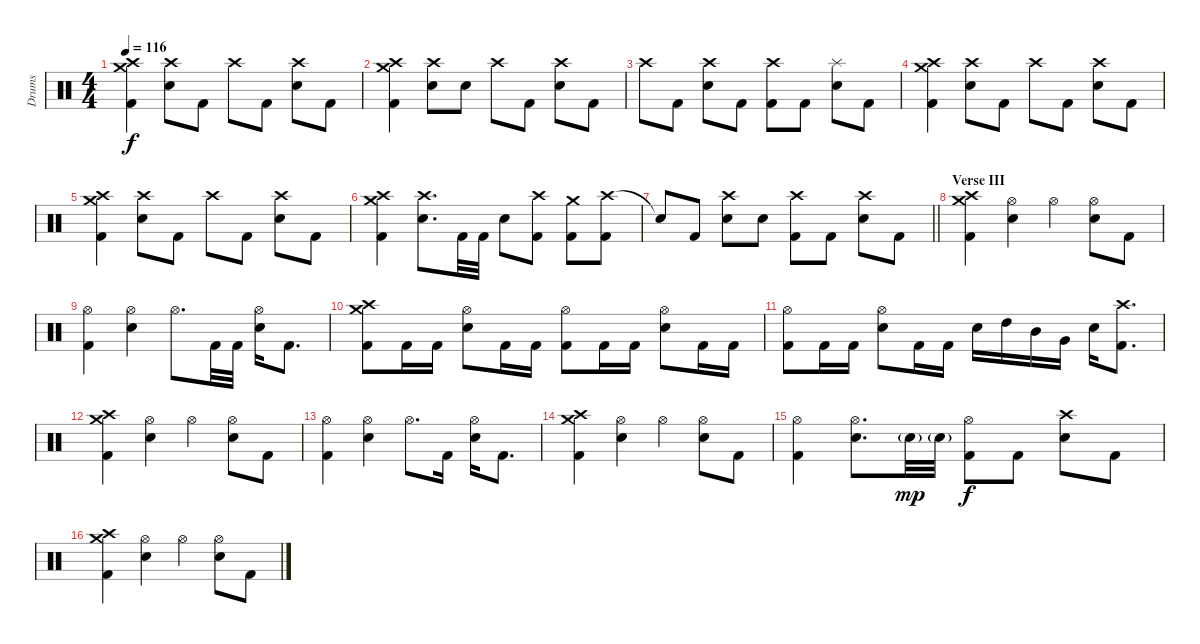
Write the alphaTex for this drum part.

\track ("Drums" "Drums") {instrument percussion}
\staff {score}
\articulation defaults
\ts (4 4)
\tempo 116
\clef neutral
\ks c
("Crash medium (hit)" "Crash high (hit)" "Kick (hit) 2").4{dy f} ("Crash high (hit)" "Electric Snare (hit)").8 "Kick (hit) 2".8 "Crash high (hit)".8 "Kick (hit) 2".8 ("Crash high (hit)" "Electric Snare (hit)").8 "Kick (hit) 2".8 |
("Crash medium (hit)" "Crash high (hit)" "Kick (hit) 2").4 ("Crash high (hit)" "Electric Snare (hit)").8 "Electric Snare (hit)".8 "Crash high (hit)".8 "Kick (hit) 2".8 ("Crash high (hit)" "Electric Snare (hit)").8 "Kick (hit) 2".8 |
"Crash high (hit)".8 "Kick (hit) 2".8 ("Crash high (hit)" "Electric Snare (hit)").8 "Kick (hit) 2".8 ("Crash high (hit)" "Kick (hit) 2").8 "Kick (hit) 2".8 ("Splash (hit)" "Electric Snare (hit)").8 "Kick (hit) 2".8 |
("Crash medium (hit)" "Crash high (hit)" "Kick (hit) 2").4 ("Crash high (hit)" "Electric Snare (hit)").8 "Kick (hit) 2".8 "Crash high (hit)".8 "Kick (hit) 2".8 ("Crash high (hit)" "Electric Snare (hit)").8 "Kick (hit) 2".8 |
("Crash medium (hit)" "Crash high (hit)" "Kick (hit) 2").4 ("Crash high (hit)" "Electric Snare (hit)").8 "Kick (hit) 2".8 "Crash high (hit)".8 "Kick (hit) 2".8 ("Crash high (hit)" "Electric Snare (hit)").8 "Kick (hit) 2".8 |
("Crash medium (hit)" "Crash high (hit)" "Kick (hit) 2").4 ("Crash high (hit)" "Electric Snare (hit)").8{d} "Kick (hit) 2".32 "Kick (hit) 2".32 "Electric Snare (hit)".8 ("Crash high (hit)" "Kick (hit) 2").8 ("Crash medium (hit)" "Kick (hit) 2").8 ("Crash high (hit)" "Kick (hit) 2").8 |
\barLineRight lightlight "Snare (hit)"{t}.8 "Kick (hit) 2".8
("Crash high (hit)" "Electric Snare (hit)").8 "Electric Snare (hit)".8 ("Crash high (hit)" "Kick (hit) 2").8 "Kick (hit) 2".8 ("Crash high (hit)" "Electric Snare (hit)").8 "Kick (hit) 2".8 |
\section ("" "Verse III")
("Crash medium (hit)" "Crash high (hit)" "Kick (hit) 2").4 ("Hi-Hat (open)" "Electric Snare (hit)").4 "Hi-Hat (open)".4 ("Hi-Hat (open)" "Electric Snare (hit)").8 "Kick (hit) 2".8 |
("Hi-Hat (open)" "Kick (hit) 2").4 ("Hi-Hat (open)" "Electric Snare (hit)").4 "Hi-Hat (open)".8{d} "Kick (hit) 2".32 "Kick (hit) 2".32 ("Hi-Hat (open)" "Electric Snare (hit)").16 "Kick (hit) 2".8{d} |
("Crash medium (hit)" "Crash high (hit)" "Kick (hit) 2").8 "Kick (hit) 2".16 "Kick (hit) 2".16 ("Hi-Hat (open)" "Electric Snare (hit)").8 "Kick (hit) 2".16 "Kick (hit) 2".16 ("Hi-Hat (open)" "Kick (hit) 2").8 "Kick (hit) 2".16 "Kick (hit) 2".16 ("Hi-Hat (open)" "Electric Snare (hit)").8 "Kick (hit) 2".16 "Kick (hit) 2".16 |
("Hi-Hat (open)" "Kick (hit) 2").8 "Kick (hit) 2".16 "Kick (hit) 2".16 ("Hi-Hat (open)" "Electric Snare (hit)").8 "Kick (hit) 2".16 "Kick (hit) 2".16 "Electric Snare (hit)".16 "High Tom (hit)".16 "Mid Tom (hit)".16 "Very Low Tom (hit)".16 "Electric Snare (hit)".16 ("Crash high (hit)" "Kick (hit) 2").8{d} |
("Crash medium (hit)" "Crash high (hit)" "Kick (hit) 2").4 ("Hi-Hat (open)" "Electric Snare (hit)").4 "Hi-Hat (open)".4 ("Hi-Hat (open)" "Electric Snare (hit)").8 "Kick (hit) 2".8 |
("Hi-Hat (open)" "Kick (hit) 2").4 ("Hi-Hat (open)" "Electric Snare (hit)").4 "Hi-Hat (open)".8{d} "Kick (hit) 2".16 ("Hi-Hat (open)" "Electric Snare (hit)").16 "Kick (hit) 2".8{d} |
("Crash medium (hit)" "Crash high (hit)" "Kick (hit) 2").4 ("Hi-Hat (open)" "Electric Snare (hit)").4 "Hi-Hat (open)".4 ("Hi-Hat (open)" "Electric Snare (hit)").8 "Kick (hit) 2".8 |
("Hi-Hat (open)" "Kick (hit) 2").4 ("Hi-Hat (open)" "Electric Snare (hit)").8{d} "Electric Snare (hit)"{g}.32{dy mp} "Electric Snare (hit)"{g}.32 ("Hi-Hat (open)" "Kick (hit) 2").8{dy f} "Kick (hit) 2".8 ("Crash high (hit)" "Electric Snare (hit)").8 "Kick (hit) 2".8 |
("Crash medium (hit)" "Crash high (hit)" "Kick (hit) 2").4 ("Hi-Hat (open)" "Electric Snare (hit)").4 "Hi-Hat (open)".4 ("Hi-Hat (open)" "Electric Snare (hit)").8 "Kick (hit) 2".8
